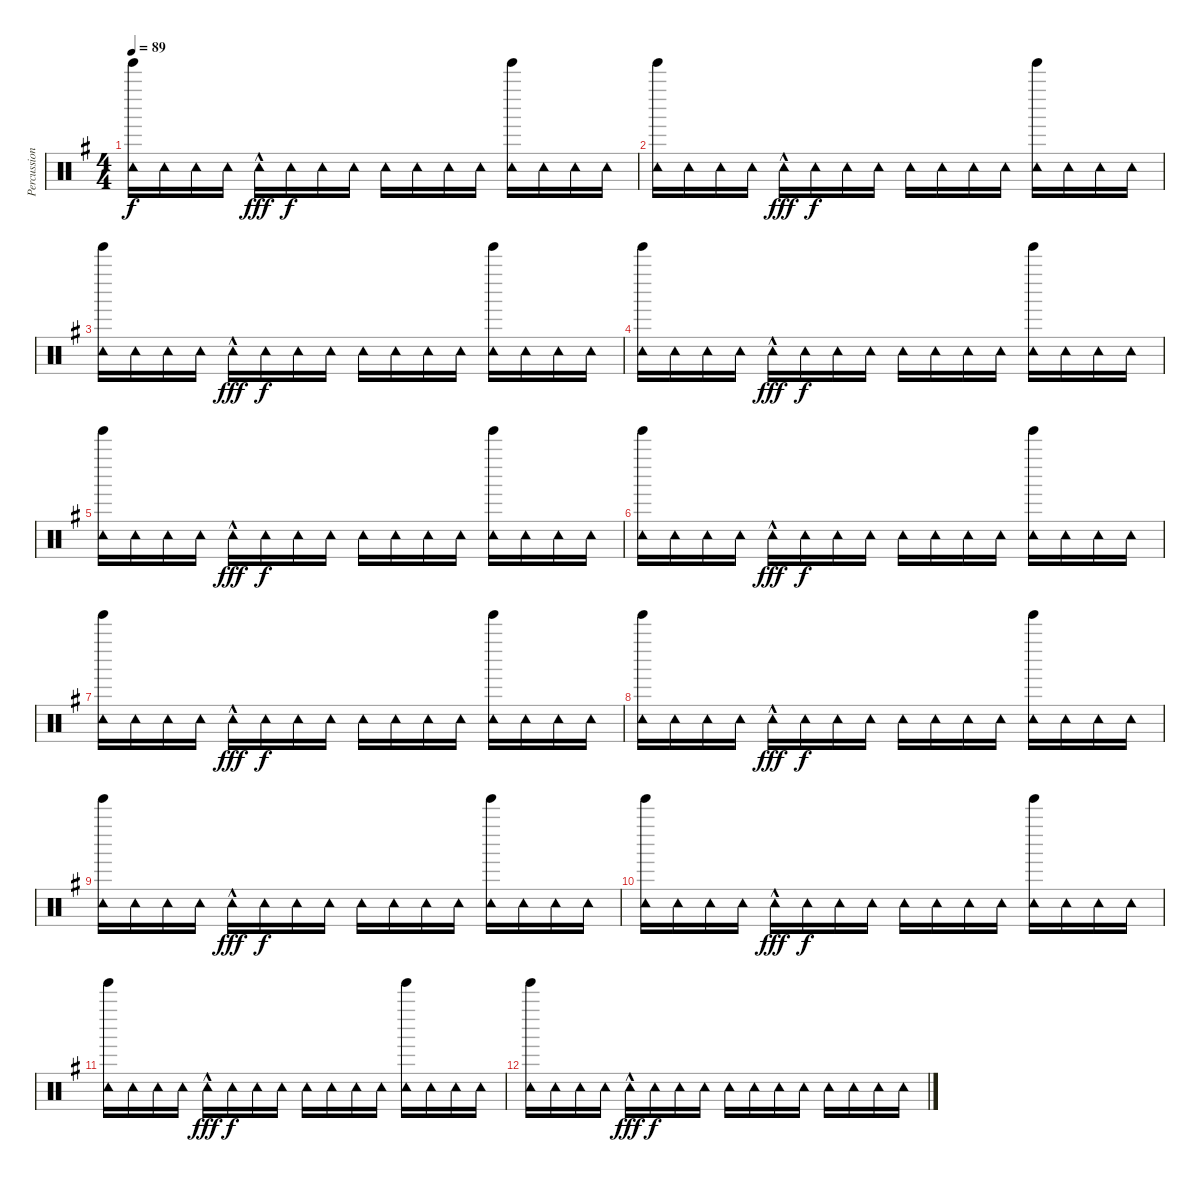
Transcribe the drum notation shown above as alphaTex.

\track ("Percussion" "Percussion") {instrument percussion}
\staff {score}
\articulation defaults
\ts (4 4)
\tempo 89
\clef neutral
\ks g
("Tambourine (hit)" "Tinkle Bell (hit)").16{dy f} "Tambourine (hit)".16 "Tambourine (hit)".16 "Tambourine (hit)".16 "Tambourine (hit)"{hac}.16{dy fff} "Tambourine (hit)".16{dy f} "Tambourine (hit)".16 "Tambourine (hit)".16 "Tambourine (hit)".16 "Tambourine (hit)".16 "Tambourine (hit)".16 "Tambourine (hit)".16 ("Tambourine (hit)" "Tinkle Bell (hit)").16 "Tambourine (hit)".16 "Tambourine (hit)".16 "Tambourine (hit)".16 |
("Tambourine (hit)" "Tinkle Bell (hit)").16 "Tambourine (hit)".16 "Tambourine (hit)".16 "Tambourine (hit)".16 "Tambourine (hit)"{hac}.16{dy fff} "Tambourine (hit)".16{dy f} "Tambourine (hit)".16 "Tambourine (hit)".16 "Tambourine (hit)".16 "Tambourine (hit)".16 "Tambourine (hit)".16 "Tambourine (hit)".16 ("Tambourine (hit)" "Tinkle Bell (hit)").16 "Tambourine (hit)".16 "Tambourine (hit)".16 "Tambourine (hit)".16 |
("Tambourine (hit)" "Tinkle Bell (hit)").16 "Tambourine (hit)".16 "Tambourine (hit)".16 "Tambourine (hit)".16 "Tambourine (hit)"{hac}.16{dy fff} "Tambourine (hit)".16{dy f} "Tambourine (hit)".16 "Tambourine (hit)".16 "Tambourine (hit)".16 "Tambourine (hit)".16 "Tambourine (hit)".16 "Tambourine (hit)".16 ("Tambourine (hit)" "Tinkle Bell (hit)").16 "Tambourine (hit)".16 "Tambourine (hit)".16 "Tambourine (hit)".16 |
("Tambourine (hit)" "Tinkle Bell (hit)").16 "Tambourine (hit)".16 "Tambourine (hit)".16 "Tambourine (hit)".16 "Tambourine (hit)"{hac}.16{dy fff} "Tambourine (hit)".16{dy f} "Tambourine (hit)".16 "Tambourine (hit)".16 "Tambourine (hit)".16 "Tambourine (hit)".16 "Tambourine (hit)".16 "Tambourine (hit)".16 ("Tambourine (hit)" "Tinkle Bell (hit)").16 "Tambourine (hit)".16 "Tambourine (hit)".16 "Tambourine (hit)".16 |
("Tambourine (hit)" "Tinkle Bell (hit)").16 "Tambourine (hit)".16 "Tambourine (hit)".16 "Tambourine (hit)".16 "Tambourine (hit)"{hac}.16{dy fff} "Tambourine (hit)".16{dy f} "Tambourine (hit)".16 "Tambourine (hit)".16 "Tambourine (hit)".16 "Tambourine (hit)".16 "Tambourine (hit)".16 "Tambourine (hit)".16 ("Tambourine (hit)" "Tinkle Bell (hit)").16 "Tambourine (hit)".16 "Tambourine (hit)".16 "Tambourine (hit)".16 |
("Tambourine (hit)" "Tinkle Bell (hit)").16 "Tambourine (hit)".16 "Tambourine (hit)".16 "Tambourine (hit)".16 "Tambourine (hit)"{hac}.16{dy fff} "Tambourine (hit)".16{dy f} "Tambourine (hit)".16 "Tambourine (hit)".16 "Tambourine (hit)".16 "Tambourine (hit)".16 "Tambourine (hit)".16 "Tambourine (hit)".16 ("Tambourine (hit)" "Tinkle Bell (hit)").16 "Tambourine (hit)".16 "Tambourine (hit)".16 "Tambourine (hit)".16 |
("Tambourine (hit)" "Tinkle Bell (hit)").16 "Tambourine (hit)".16 "Tambourine (hit)".16 "Tambourine (hit)".16 "Tambourine (hit)"{hac}.16{dy fff} "Tambourine (hit)".16{dy f} "Tambourine (hit)".16 "Tambourine (hit)".16 "Tambourine (hit)".16 "Tambourine (hit)".16 "Tambourine (hit)".16 "Tambourine (hit)".16 ("Tambourine (hit)" "Tinkle Bell (hit)").16 "Tambourine (hit)".16 "Tambourine (hit)".16 "Tambourine (hit)".16 |
("Tambourine (hit)" "Tinkle Bell (hit)").16 "Tambourine (hit)".16 "Tambourine (hit)".16 "Tambourine (hit)".16 "Tambourine (hit)"{hac}.16{dy fff} "Tambourine (hit)".16{dy f} "Tambourine (hit)".16 "Tambourine (hit)".16 "Tambourine (hit)".16 "Tambourine (hit)".16 "Tambourine (hit)".16 "Tambourine (hit)".16 ("Tambourine (hit)" "Tinkle Bell (hit)").16 "Tambourine (hit)".16 "Tambourine (hit)".16 "Tambourine (hit)".16 |
("Tambourine (hit)" "Tinkle Bell (hit)").16 "Tambourine (hit)".16 "Tambourine (hit)".16 "Tambourine (hit)".16 "Tambourine (hit)"{hac}.16{dy fff} "Tambourine (hit)".16{dy f} "Tambourine (hit)".16 "Tambourine (hit)".16 "Tambourine (hit)".16 "Tambourine (hit)".16 "Tambourine (hit)".16 "Tambourine (hit)".16 ("Tambourine (hit)" "Tinkle Bell (hit)").16 "Tambourine (hit)".16 "Tambourine (hit)".16 "Tambourine (hit)".16 |
("Tambourine (hit)" "Tinkle Bell (hit)").16 "Tambourine (hit)".16 "Tambourine (hit)".16 "Tambourine (hit)".16 "Tambourine (hit)"{hac}.16{dy fff} "Tambourine (hit)".16{dy f} "Tambourine (hit)".16 "Tambourine (hit)".16 "Tambourine (hit)".16 "Tambourine (hit)".16 "Tambourine (hit)".16 "Tambourine (hit)".16 ("Tambourine (hit)" "Tinkle Bell (hit)").16 "Tambourine (hit)".16 "Tambourine (hit)".16 "Tambourine (hit)".16 |
("Tambourine (hit)" "Tinkle Bell (hit)").16 "Tambourine (hit)".16 "Tambourine (hit)".16 "Tambourine (hit)".16 "Tambourine (hit)"{hac}.16{dy fff} "Tambourine (hit)".16{dy f} "Tambourine (hit)".16 "Tambourine (hit)".16 "Tambourine (hit)".16 "Tambourine (hit)".16 "Tambourine (hit)".16 "Tambourine (hit)".16 ("Tambourine (hit)" "Tinkle Bell (hit)").16 "Tambourine (hit)".16 "Tambourine (hit)".16 "Tambourine (hit)".16 |
("Tambourine (hit)" "Tinkle Bell (hit)").16 "Tambourine (hit)".16 "Tambourine (hit)".16 "Tambourine (hit)".16 "Tambourine (hit)"{hac}.16{dy fff} "Tambourine (hit)".16{dy f} "Tambourine (hit)".16 "Tambourine (hit)".16 "Tambourine (hit)".16 "Tambourine (hit)".16 "Tambourine (hit)".16 "Tambourine (hit)".16 "Tambourine (hit)".16 "Tambourine (hit)".16 "Tambourine (hit)".16 "Tambourine (hit)".16
